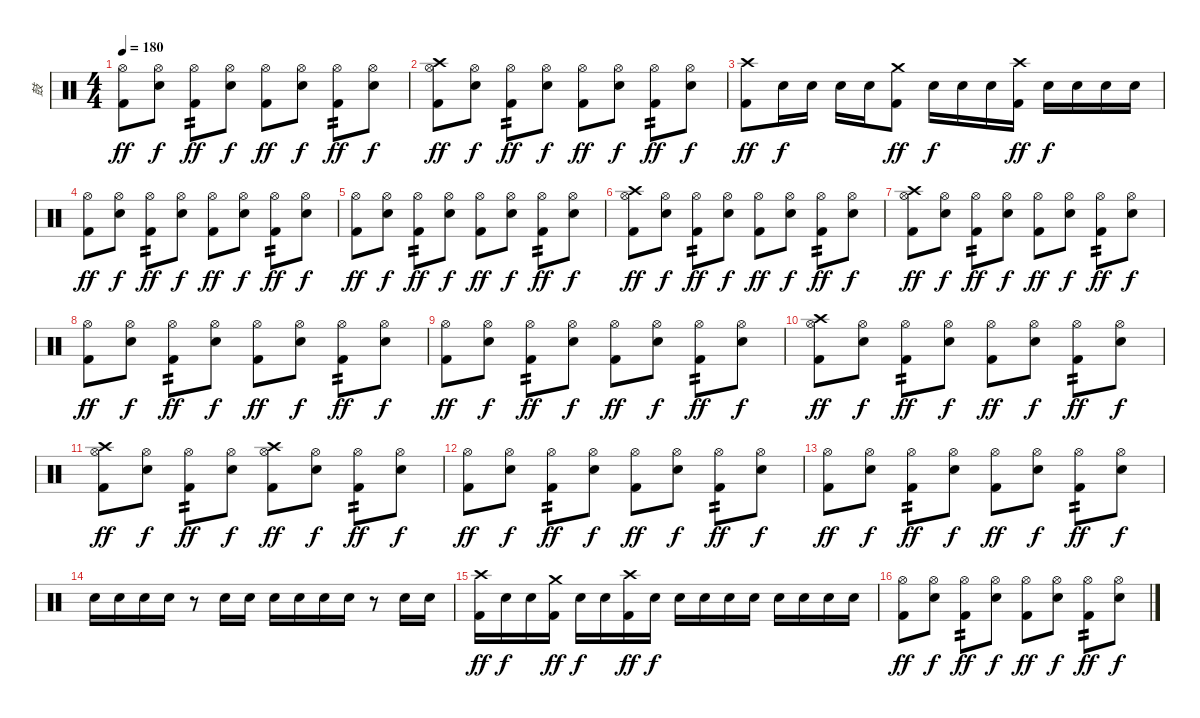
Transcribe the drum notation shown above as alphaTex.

\track ("鼓" "鼓") {instrument percussion}
\staff {score}
\articulation defaults
\ts (4 4)
\tempo 180
\clef neutral
\ks c
("Hi-Hat (open)" "Kick (hit) 2").8{dy ff} ("Hi-Hat (open)" "Snare (hit) 2").8{dy f} ("Hi-Hat (open)" "Kick (hit) 2").8{tp 2 dy ff} ("Hi-Hat (open)" "Snare (hit) 2").8{dy f} ("Hi-Hat (open)" "Kick (hit) 2").8{dy ff} ("Hi-Hat (open)" "Snare (hit) 2").8{dy f} ("Hi-Hat (open)" "Kick (hit) 2").8{tp 2 dy ff} ("Hi-Hat (open)" "Snare (hit) 2").8{dy f} |
("Crash high (hit)" "Hi-Hat (open)" "Kick (hit) 2").8{dy ff} ("Hi-Hat (open)" "Snare (hit) 2").8{dy f} ("Hi-Hat (open)" "Kick (hit) 2").8{tp 2 dy ff} ("Hi-Hat (open)" "Snare (hit) 2").8{dy f} ("Hi-Hat (open)" "Kick (hit) 2").8{dy ff} ("Hi-Hat (open)" "Snare (hit) 2").8{dy f} ("Hi-Hat (open)" "Kick (hit) 2").8{tp 2 dy ff} ("Hi-Hat (open)" "Snare (hit) 2").8{dy f} |
("Crash high (hit)" "Kick (hit) 2").8{dy ff} "Snare (hit) 2".16{dy f} "Snare (hit) 2".16 "Snare (hit) 2".16 "Snare (hit) 2".16 ("Crash medium (hit)" "Kick (hit) 2").8{dy ff} "Snare (hit) 2".16{dy f} "Snare (hit) 2".16 "Snare (hit) 2".16 ("Crash high (hit)" "Kick (hit) 2").16{dy ff} "Snare (hit) 2".16{dy f} "Snare (hit) 2".16 "Snare (hit) 2".16 "Snare (hit) 2".16 |
("Hi-Hat (open)" "Kick (hit) 2").8{dy ff} ("Hi-Hat (open)" "Snare (hit) 2").8{dy f} ("Hi-Hat (open)" "Kick (hit) 2").8{tp 2 dy ff} ("Hi-Hat (open)" "Snare (hit) 2").8{dy f} ("Hi-Hat (open)" "Kick (hit) 2").8{dy ff} ("Hi-Hat (open)" "Snare (hit) 2").8{dy f} ("Hi-Hat (open)" "Kick (hit) 2").8{tp 2 dy ff} ("Hi-Hat (open)" "Snare (hit) 2").8{dy f} |
("Hi-Hat (open)" "Kick (hit) 2").8{dy ff} ("Hi-Hat (open)" "Snare (hit) 2").8{dy f} ("Hi-Hat (open)" "Kick (hit) 2").8{tp 2 dy ff} ("Hi-Hat (open)" "Snare (hit) 2").8{dy f} ("Hi-Hat (open)" "Kick (hit) 2").8{dy ff} ("Hi-Hat (open)" "Snare (hit) 2").8{dy f} ("Hi-Hat (open)" "Kick (hit) 2").8{tp 2 dy ff} ("Hi-Hat (open)" "Snare (hit) 2").8{dy f} |
("Crash high (hit)" "Hi-Hat (open)" "Kick (hit) 2").8{dy ff} ("Hi-Hat (open)" "Snare (hit) 2").8{dy f} ("Hi-Hat (open)" "Kick (hit) 2").8{tp 2 dy ff} ("Hi-Hat (open)" "Snare (hit) 2").8{dy f} ("Hi-Hat (open)" "Kick (hit) 2").8{dy ff} ("Hi-Hat (open)" "Snare (hit) 2").8{dy f} ("Hi-Hat (open)" "Kick (hit) 2").8{tp 2 dy ff} ("Hi-Hat (open)" "Snare (hit) 2").8{dy f} |
("Crash high (hit)" "Hi-Hat (open)" "Kick (hit) 2").8{dy ff} ("Hi-Hat (open)" "Snare (hit) 2").8{dy f} ("Hi-Hat (open)" "Kick (hit) 2").8{tp 2 dy ff} ("Hi-Hat (open)" "Snare (hit) 2").8{dy f} ("Hi-Hat (open)" "Kick (hit) 2").8{dy ff} ("Hi-Hat (open)" "Snare (hit) 2").8{dy f} ("Hi-Hat (open)" "Kick (hit) 2").8{tp 2 dy ff} ("Hi-Hat (open)" "Snare (hit) 2").8{dy f} |
("Hi-Hat (open)" "Kick (hit) 2").8{dy ff} ("Hi-Hat (open)" "Snare (hit) 2").8{dy f} ("Hi-Hat (open)" "Kick (hit) 2").8{tp 2 dy ff} ("Hi-Hat (open)" "Snare (hit) 2").8{dy f} ("Hi-Hat (open)" "Kick (hit) 2").8{dy ff} ("Hi-Hat (open)" "Snare (hit) 2").8{dy f} ("Hi-Hat (open)" "Kick (hit) 2").8{tp 2 dy ff} ("Hi-Hat (open)" "Snare (hit) 2").8{dy f} |
("Hi-Hat (open)" "Kick (hit) 2").8{dy ff} ("Hi-Hat (open)" "Snare (hit) 2").8{dy f} ("Hi-Hat (open)" "Kick (hit) 2").8{tp 2 dy ff} ("Hi-Hat (open)" "Snare (hit) 2").8{dy f} ("Hi-Hat (open)" "Kick (hit) 2").8{dy ff} ("Hi-Hat (open)" "Snare (hit) 2").8{dy f} ("Hi-Hat (open)" "Kick (hit) 2").8{tp 2 dy ff} ("Hi-Hat (open)" "Snare (hit) 2").8{dy f} |
("Crash high (hit)" "Hi-Hat (open)" "Kick (hit) 2").8{dy ff} ("Hi-Hat (open)" "Snare (hit) 2").8{dy f} ("Hi-Hat (open)" "Kick (hit) 2").8{tp 2 dy ff} ("Hi-Hat (open)" "Snare (hit) 2").8{dy f} ("Hi-Hat (open)" "Kick (hit) 2").8{dy ff} ("Hi-Hat (open)" "Snare (hit) 2").8{dy f} ("Hi-Hat (open)" "Kick (hit) 2").8{tp 2 dy ff} ("Hi-Hat (open)" "Snare (hit) 2").8{dy f} |
("Crash high (hit)" "Hi-Hat (open)" "Kick (hit) 2").8{dy ff} ("Hi-Hat (open)" "Snare (hit) 2").8{dy f} ("Hi-Hat (open)" "Kick (hit) 2").8{tp 2 dy ff} ("Hi-Hat (open)" "Snare (hit) 2").8{dy f} ("Crash high (hit)" "Hi-Hat (open)" "Kick (hit) 2").8{dy ff} ("Hi-Hat (open)" "Snare (hit) 2").8{dy f} ("Hi-Hat (open)" "Kick (hit) 2").8{tp 2 dy ff} ("Hi-Hat (open)" "Snare (hit) 2").8{dy f} |
("Hi-Hat (open)" "Kick (hit) 2").8{dy ff} ("Hi-Hat (open)" "Snare (hit) 2").8{dy f} ("Hi-Hat (open)" "Kick (hit) 2").8{tp 2 dy ff} ("Hi-Hat (open)" "Snare (hit) 2").8{dy f} ("Hi-Hat (open)" "Kick (hit) 2").8{dy ff} ("Hi-Hat (open)" "Snare (hit) 2").8{dy f} ("Hi-Hat (open)" "Kick (hit) 2").8{tp 2 dy ff} ("Hi-Hat (open)" "Snare (hit) 2").8{dy f} |
("Hi-Hat (open)" "Kick (hit) 2").8{dy ff} ("Hi-Hat (open)" "Snare (hit) 2").8{dy f} ("Hi-Hat (open)" "Kick (hit) 2").8{tp 2 dy ff} ("Hi-Hat (open)" "Snare (hit) 2").8{dy f} ("Hi-Hat (open)" "Kick (hit) 2").8{dy ff} ("Hi-Hat (open)" "Snare (hit) 2").8{dy f} ("Hi-Hat (open)" "Kick (hit) 2").8{tp 2 dy ff} ("Hi-Hat (open)" "Snare (hit) 2").8{dy f} |
"Snare (hit) 2".16 "Snare (hit) 2".16 "Snare (hit) 2".16 "Snare (hit) 2".16 r.8 "Snare (hit) 2".16 "Snare (hit) 2".16 "Snare (hit) 2".16 "Snare (hit) 2".16 "Snare (hit) 2".16 "Snare (hit) 2".16 r.8 "Snare (hit) 2".16 "Snare (hit) 2".16 |
("Crash high (hit)" "Kick (hit) 2").16{dy ff} "Snare (hit) 2".16{dy f} "Snare (hit) 2".16 ("Crash medium (hit)" "Kick (hit) 2").16{dy ff} "Snare (hit) 2".16{dy f} "Snare (hit) 2".16 ("Crash high (hit)" "Kick (hit) 2").16{dy ff} "Snare (hit) 2".16{dy f} "Snare (hit) 2".16 "Snare (hit) 2".16 "Snare (hit) 2".16 "Snare (hit) 2".16 "Snare (hit) 2".16 "Snare (hit) 2".16 "Snare (hit) 2".16 "Snare (hit) 2".16 |
("Hi-Hat (open)" "Kick (hit) 2").8{dy ff} ("Hi-Hat (open)" "Snare (hit) 2").8{dy f} ("Hi-Hat (open)" "Kick (hit) 2").8{tp 2 dy ff} ("Hi-Hat (open)" "Snare (hit) 2").8{dy f} ("Hi-Hat (open)" "Kick (hit) 2").8{dy ff} ("Hi-Hat (open)" "Snare (hit) 2").8{dy f} ("Hi-Hat (open)" "Kick (hit) 2").8{tp 2 dy ff} ("Hi-Hat (open)" "Snare (hit) 2").8{dy f}
